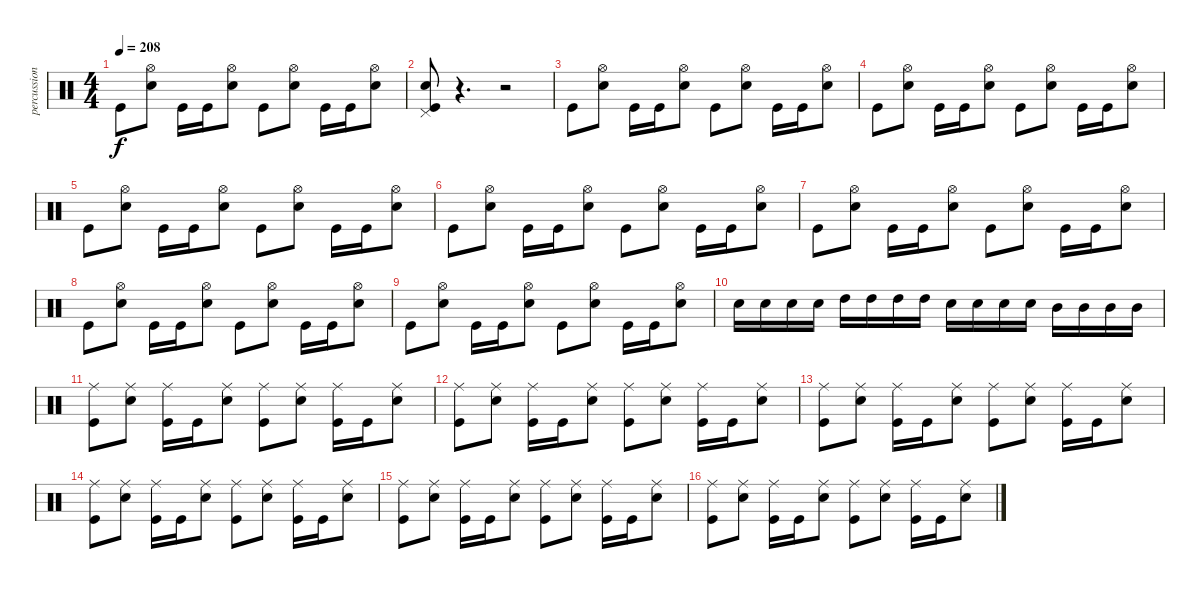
\track ("percussion" "percussion") {instrument percussion}
\staff {score}
\articulation defaults
\ts (4 4)
\tempo 208
\clef neutral
\ks c "Kick (hit)".8{dy f}
("Electric Snare (hit)" "Hi-Hat (open)").8 "Kick (hit)".16 "Kick (hit)".16 ("Electric Snare (hit)" "Hi-Hat (open)").8 "Kick (hit)".8 ("Electric Snare (hit)" "Hi-Hat (open)").8 "Kick (hit)".16 "Kick (hit)".16 ("Electric Snare (hit)" "Hi-Hat (open)").8 |
("Kick (hit)" "Pedal Hi-Hat (hit)" "Electric Snare (hit)").8 r.4{d} r.2 |
"Kick (hit)".8 ("Electric Snare (hit)" "Hi-Hat (open)").8 "Kick (hit)".16 "Kick (hit)".16 ("Electric Snare (hit)" "Hi-Hat (open)").8 "Kick (hit)".8 ("Electric Snare (hit)" "Hi-Hat (open)").8 "Kick (hit)".16 "Kick (hit)".16 ("Electric Snare (hit)" "Hi-Hat (open)").8 |
"Kick (hit)".8 ("Electric Snare (hit)" "Hi-Hat (open)").8 "Kick (hit)".16 "Kick (hit)".16 ("Electric Snare (hit)" "Hi-Hat (open)").8 "Kick (hit)".8 ("Electric Snare (hit)" "Hi-Hat (open)").8 "Kick (hit)".16 "Kick (hit)".16 ("Electric Snare (hit)" "Hi-Hat (open)").8 |
"Kick (hit)".8 ("Electric Snare (hit)" "Hi-Hat (open)").8 "Kick (hit)".16 "Kick (hit)".16 ("Electric Snare (hit)" "Hi-Hat (open)").8 "Kick (hit)".8 ("Electric Snare (hit)" "Hi-Hat (open)").8 "Kick (hit)".16 "Kick (hit)".16 ("Electric Snare (hit)" "Hi-Hat (open)").8 |
"Kick (hit)".8 ("Electric Snare (hit)" "Hi-Hat (open)").8 "Kick (hit)".16 "Kick (hit)".16 ("Electric Snare (hit)" "Hi-Hat (open)").8 "Kick (hit)".8 ("Electric Snare (hit)" "Hi-Hat (open)").8 "Kick (hit)".16 "Kick (hit)".16 ("Electric Snare (hit)" "Hi-Hat (open)").8 |
"Kick (hit)".8 ("Electric Snare (hit)" "Hi-Hat (open)").8 "Kick (hit)".16 "Kick (hit)".16 ("Electric Snare (hit)" "Hi-Hat (open)").8 "Kick (hit)".8 ("Electric Snare (hit)" "Hi-Hat (open)").8 "Kick (hit)".16 "Kick (hit)".16 ("Electric Snare (hit)" "Hi-Hat (open)").8 |
"Kick (hit)".8 ("Electric Snare (hit)" "Hi-Hat (open)").8 "Kick (hit)".16 "Kick (hit)".16 ("Electric Snare (hit)" "Hi-Hat (open)").8 "Kick (hit)".8 ("Electric Snare (hit)" "Hi-Hat (open)").8 "Kick (hit)".16 "Kick (hit)".16 ("Electric Snare (hit)" "Hi-Hat (open)").8 |
"Kick (hit)".8 ("Electric Snare (hit)" "Hi-Hat (open)").8 "Kick (hit)".16 "Kick (hit)".16 ("Electric Snare (hit)" "Hi-Hat (open)").8 "Kick (hit)".8 ("Electric Snare (hit)" "Hi-Hat (open)").8 "Kick (hit)".16 "Kick (hit)".16 ("Electric Snare (hit)" "Hi-Hat (open)").8 |
"Electric Snare (hit)".16 "Electric Snare (hit)".16 "Electric Snare (hit)".16 "Electric Snare (hit)".16 "High Tom (hit)".16 "High Tom (hit)".16 "High Tom (hit)".16 "High Tom (hit)".16 "Electric Snare (hit)".16 "Electric Snare (hit)".16 "Electric Snare (hit)".16 "Electric Snare (hit)".16 "Mid Tom (hit)".16 "Mid Tom (hit)".16 "Mid Tom (hit)".16 "Mid Tom (hit)".16 |
("Kick (hit)" "Ride (middle)").8 ("Electric Snare (hit)" "Ride (middle)").8 ("Kick (hit)" "Ride (middle)").16 "Kick (hit)".16 ("Electric Snare (hit)" "Ride (middle)").8 ("Kick (hit)" "Ride (middle)").8 ("Electric Snare (hit)" "Ride (middle)").8 ("Kick (hit)" "Ride (middle)").16 "Kick (hit)".16 ("Electric Snare (hit)" "Ride (middle)").8 |
("Kick (hit)" "Ride (middle)").8 ("Electric Snare (hit)" "Ride (middle)").8 ("Kick (hit)" "Ride (middle)").16 "Kick (hit)".16 ("Electric Snare (hit)" "Ride (middle)").8 ("Kick (hit)" "Ride (middle)").8 ("Electric Snare (hit)" "Ride (middle)").8 ("Kick (hit)" "Ride (middle)").16 "Kick (hit)".16 ("Electric Snare (hit)" "Ride (middle)").8 |
("Kick (hit)" "Ride (middle)").8 ("Electric Snare (hit)" "Ride (middle)").8 ("Kick (hit)" "Ride (middle)").16 "Kick (hit)".16 ("Electric Snare (hit)" "Ride (middle)").8 ("Kick (hit)" "Ride (middle)").8 ("Electric Snare (hit)" "Ride (middle)").8 ("Kick (hit)" "Ride (middle)").16 "Kick (hit)".16 ("Electric Snare (hit)" "Ride (middle)").8 |
("Kick (hit)" "Ride (middle)").8 ("Electric Snare (hit)" "Ride (middle)").8 ("Kick (hit)" "Ride (middle)").16 "Kick (hit)".16 ("Electric Snare (hit)" "Ride (middle)").8 ("Kick (hit)" "Ride (middle)").8 ("Electric Snare (hit)" "Ride (middle)").8 ("Kick (hit)" "Ride (middle)").16 "Kick (hit)".16 ("Electric Snare (hit)" "Ride (middle)").8 |
("Kick (hit)" "Ride (middle)").8 ("Electric Snare (hit)" "Ride (middle)").8 ("Kick (hit)" "Ride (middle)").16 "Kick (hit)".16 ("Electric Snare (hit)" "Ride (middle)").8 ("Kick (hit)" "Ride (middle)").8 ("Electric Snare (hit)" "Ride (middle)").8 ("Kick (hit)" "Ride (middle)").16 "Kick (hit)".16 ("Electric Snare (hit)" "Ride (middle)").8 |
("Kick (hit)" "Ride (middle)").8 ("Electric Snare (hit)" "Ride (middle)").8 ("Kick (hit)" "Ride (middle)").16 "Kick (hit)".16 ("Electric Snare (hit)" "Ride (middle)").8 ("Kick (hit)" "Ride (middle)").8 ("Electric Snare (hit)" "Ride (middle)").8 ("Kick (hit)" "Ride (middle)").16 "Kick (hit)".16 ("Electric Snare (hit)" "Ride (middle)").8
